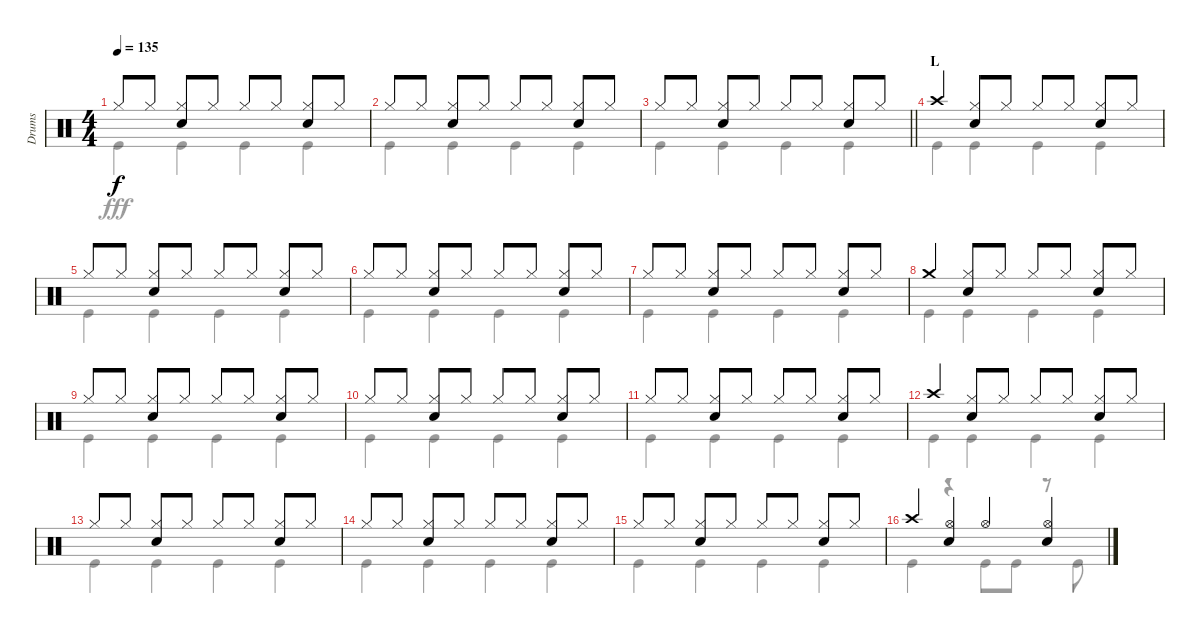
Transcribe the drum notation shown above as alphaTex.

\track ("Drums" "Drums") {instrument percussion}
\staff {score}
\articulation defaults
\voice
\ts (4 4)
\tempo 135
\clef neutral
\ks c "Hi-Hat (closed)".8{dy f} "Hi-Hat (closed)".8
("Hi-Hat (closed)" "Snare (hit) 2").8 "Hi-Hat (closed)".8 "Hi-Hat (closed)".8 "Hi-Hat (closed)".8 ("Hi-Hat (closed)" "Snare (hit) 2").8 "Hi-Hat (closed)".8 |
"Hi-Hat (closed)".8 "Hi-Hat (closed)".8 ("Hi-Hat (closed)" "Snare (hit) 2").8 "Hi-Hat (closed)".8 "Hi-Hat (closed)".8 "Hi-Hat (closed)".8 ("Hi-Hat (closed)" "Snare (hit) 2").8 "Hi-Hat (closed)".8 |
\barLineRight lightlight "Hi-Hat (closed)".8 "Hi-Hat (closed)".8
("Hi-Hat (closed)" "Snare (hit) 2").8 "Hi-Hat (closed)".8 "Hi-Hat (closed)".8 "Hi-Hat (closed)".8 ("Hi-Hat (closed)" "Snare (hit) 2").8 "Hi-Hat (closed)".8 |
\section ("" "L")
"Crash high (hit)".4 ("Hi-Hat (closed)" "Snare (hit) 2").8 "Hi-Hat (closed)".8 "Hi-Hat (closed)".8 "Hi-Hat (closed)".8 ("Hi-Hat (closed)" "Snare (hit) 2").8 "Hi-Hat (closed)".8 |
"Hi-Hat (closed)".8 "Hi-Hat (closed)".8 ("Hi-Hat (closed)" "Snare (hit) 2").8 "Hi-Hat (closed)".8 "Hi-Hat (closed)".8 "Hi-Hat (closed)".8 ("Hi-Hat (closed)" "Snare (hit) 2").8 "Hi-Hat (closed)".8 |
"Hi-Hat (closed)".8 "Hi-Hat (closed)".8 ("Hi-Hat (closed)" "Snare (hit) 2").8 "Hi-Hat (closed)".8 "Hi-Hat (closed)".8 "Hi-Hat (closed)".8 ("Hi-Hat (closed)" "Snare (hit) 2").8 "Hi-Hat (closed)".8 |
"Hi-Hat (closed)".8 "Hi-Hat (closed)".8 ("Hi-Hat (closed)" "Snare (hit) 2").8 "Hi-Hat (closed)".8 "Hi-Hat (closed)".8 "Hi-Hat (closed)".8 ("Hi-Hat (closed)" "Snare (hit) 2").8 "Hi-Hat (closed)".8 |
"Crash medium (hit)".4 ("Hi-Hat (closed)" "Snare (hit) 2").8 "Hi-Hat (closed)".8 "Hi-Hat (closed)".8 "Hi-Hat (closed)".8 ("Hi-Hat (closed)" "Snare (hit) 2").8 "Hi-Hat (closed)".8 |
"Hi-Hat (closed)".8 "Hi-Hat (closed)".8 ("Hi-Hat (closed)" "Snare (hit) 2").8 "Hi-Hat (closed)".8 "Hi-Hat (closed)".8 "Hi-Hat (closed)".8 ("Hi-Hat (closed)" "Snare (hit) 2").8 "Hi-Hat (closed)".8 |
"Hi-Hat (closed)".8 "Hi-Hat (closed)".8 ("Hi-Hat (closed)" "Snare (hit) 2").8 "Hi-Hat (closed)".8 "Hi-Hat (closed)".8 "Hi-Hat (closed)".8 ("Hi-Hat (closed)" "Snare (hit) 2").8 "Hi-Hat (closed)".8 |
"Hi-Hat (closed)".8 "Hi-Hat (closed)".8 ("Hi-Hat (closed)" "Snare (hit) 2").8 "Hi-Hat (closed)".8 "Hi-Hat (closed)".8 "Hi-Hat (closed)".8 ("Hi-Hat (closed)" "Snare (hit) 2").8 "Hi-Hat (closed)".8 |
"Crash high (hit)".4 ("Hi-Hat (closed)" "Snare (hit) 2").8 "Hi-Hat (closed)".8 "Hi-Hat (closed)".8 "Hi-Hat (closed)".8 ("Hi-Hat (closed)" "Snare (hit) 2").8 "Hi-Hat (closed)".8 |
"Hi-Hat (closed)".8 "Hi-Hat (closed)".8 ("Hi-Hat (closed)" "Snare (hit) 2").8 "Hi-Hat (closed)".8 "Hi-Hat (closed)".8 "Hi-Hat (closed)".8 ("Hi-Hat (closed)" "Snare (hit) 2").8 "Hi-Hat (closed)".8 |
"Hi-Hat (closed)".8 "Hi-Hat (closed)".8 ("Hi-Hat (closed)" "Snare (hit) 2").8 "Hi-Hat (closed)".8 "Hi-Hat (closed)".8 "Hi-Hat (closed)".8 ("Hi-Hat (closed)" "Snare (hit) 2").8 "Hi-Hat (closed)".8 |
"Hi-Hat (closed)".8 "Hi-Hat (closed)".8 ("Hi-Hat (closed)" "Snare (hit) 2").8 "Hi-Hat (closed)".8 "Hi-Hat (closed)".8 "Hi-Hat (closed)".8 ("Hi-Hat (closed)" "Snare (hit) 2").8 "Hi-Hat (closed)".8 |
"Crash high (hit)".4 ("Hi-Hat (open)" "Snare (hit) 2").4 "Hi-Hat (open)".4 ("Hi-Hat (open)" "Snare (hit) 2").4
\voice
\clef neutral
\ottava regular
\simile none
\ks c "Kick (hit)".4{dy fff} "Kick (hit)".4 "Kick (hit)".4 "Kick (hit)".4
|
"Kick (hit)".4 "Kick (hit)".4 "Kick (hit)".4 "Kick (hit)".4 |
\barLineRight lightlight "Kick (hit)".4 "Kick (hit)".4 "Kick (hit)".4 "Kick (hit)".4
|
"Kick (hit)".4 "Kick (hit)".4 "Kick (hit)".4 "Kick (hit)".4 |
"Kick (hit)".4 "Kick (hit)".4 "Kick (hit)".4 "Kick (hit)".4 |
"Kick (hit)".4 "Kick (hit)".4 "Kick (hit)".4 "Kick (hit)".4 |
"Kick (hit)".4 "Kick (hit)".4 "Kick (hit)".4 "Kick (hit)".4 |
"Kick (hit)".4 "Kick (hit)".4 "Kick (hit)".4 "Kick (hit)".4 |
"Kick (hit)".4 "Kick (hit)".4 "Kick (hit)".4 "Kick (hit)".4 |
"Kick (hit)".4 "Kick (hit)".4 "Kick (hit)".4 "Kick (hit)".4 |
"Kick (hit)".4 "Kick (hit)".4 "Kick (hit)".4 "Kick (hit)".4 |
"Kick (hit)".4 "Kick (hit)".4 "Kick (hit)".4 "Kick (hit)".4 |
"Kick (hit)".4 "Kick (hit)".4 "Kick (hit)".4 "Kick (hit)".4 |
"Kick (hit)".4 "Kick (hit)".4 "Kick (hit)".4 "Kick (hit)".4 |
"Kick (hit)".4 "Kick (hit)".4 "Kick (hit)".4 "Kick (hit)".4 |
"Kick (hit)".4 r.4 "Kick (hit)".8 "Kick (hit)".8 r.8 "Kick (hit)".8
